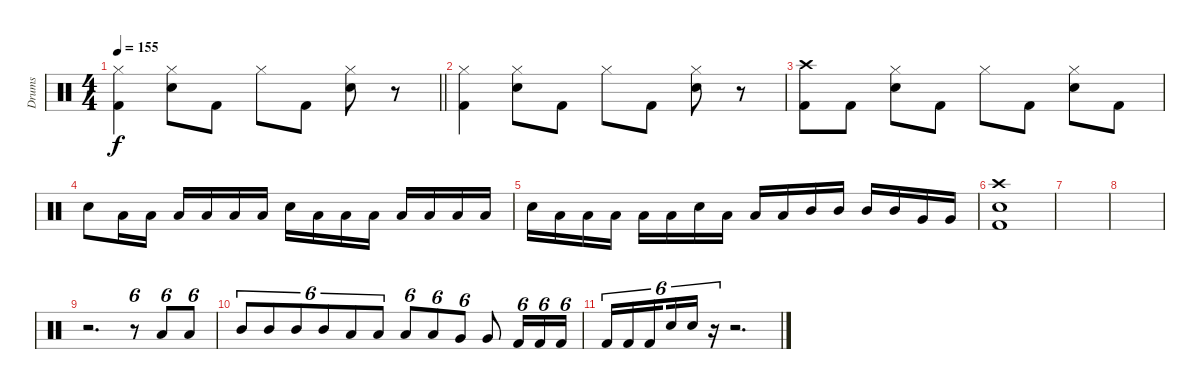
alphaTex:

\track ("Drums" "Drums") {instrument percussion}
\staff {score}
\articulation defaults
\ts (4 4)
\tempo 155
\clef neutral
\barLineRight lightlight
\ks c
("Hi-Hat (closed)" "Kick (hit) 2").4{dy f} ("Hi-Hat (closed)" "Snare (hit) 2").8 "Kick (hit) 2".8 "Hi-Hat (closed)".8 "Kick (hit) 2".8 ("Hi-Hat (closed)" "Snare (hit) 2").8 r.8 |
\section ("" "")
("Hi-Hat (closed)" "Kick (hit) 2").4 ("Hi-Hat (closed)" "Snare (hit) 2").8 "Kick (hit) 2".8 "Hi-Hat (closed)".8 "Kick (hit) 2".8 ("Hi-Hat (closed)" "Snare (hit) 2").8 r.8 |
("Crash high (hit)" "Kick (hit) 2").8 "Kick (hit) 2".8 ("Hi-Hat (closed)" "Snare (hit) 2").8 "Kick (hit) 2".8 "Hi-Hat (closed)".8 "Kick (hit) 2".8 ("Hi-Hat (closed)" "Snare (hit) 2").8 "Kick (hit) 2".8 |
"Snare (hit) 2".8 "Low Tom (hit)".16 "Low Tom (hit)".16 "Low Tom (hit)".16 "Low Tom (hit)".16 "Low Tom (hit)".16 "Low Tom (hit)".16 "Snare (hit) 2".16 "Low Tom (hit)".16 "Low Tom (hit)".16 "Low Tom (hit)".16 "Low Tom (hit)".16 "Low Tom (hit)".16 "Low Tom (hit)".16 "Low Tom (hit)".16 |
"Snare (hit) 2".16 "Low Tom (hit)".16 "Low Tom (hit)".16 "Low Tom (hit)".16 "Low Tom (hit)".16 "Low Tom (hit)".16 "Snare (hit) 2".16 "Low Tom (hit)".16 "Low Tom (hit)".16 "Low Tom (hit)".16 "Mid Tom (hit)".16 "Mid Tom (hit)".16 "Mid Tom (hit)".16 "Mid Tom (hit)".16 "Very Low Tom (hit)".16 "Very Low Tom (hit)".16 |
("Crash high (hit)" "Snare (hit) 2" "Kick (hit) 2").1 |
|
|
r.2{d} r.8{tu (6 4)} "Low Tom (hit)".8{tu (6 4)} "Low Tom (hit)".8{tu (6 4)} |
"Mid Tom (hit)".8{tu (6 4)} "Mid Tom (hit)".8{tu (6 4)} "Mid Tom (hit)".8{tu (6 4)} "Mid Tom (hit)".8{tu (6 4)} "Low Tom (hit)".8{tu (6 4)} "Low Tom (hit)".8{tu (6 4)} "Low Tom (hit)".8{tu (6 4)} "Low Tom (hit)".8{tu (6 4)} "Very Low Tom (hit)".8{tu (6 4)} "Very Low Tom (hit)".8 "Kick (hit) 2".16{tu (6 4)} "Kick (hit) 2".16{tu (6 4)} "Kick (hit) 2".16{tu (6 4)} |
"Kick (hit) 2".16{tu (6 4)} "Kick (hit) 2".16{tu (6 4)} "Kick (hit) 2".16{tu (6 4) beam splitsecondary} "Snare (hit) 2".16{tu (6 4)} "Snare (hit) 2".16{tu (6 4)} r.16{tu (6 4)} r.2{d}
